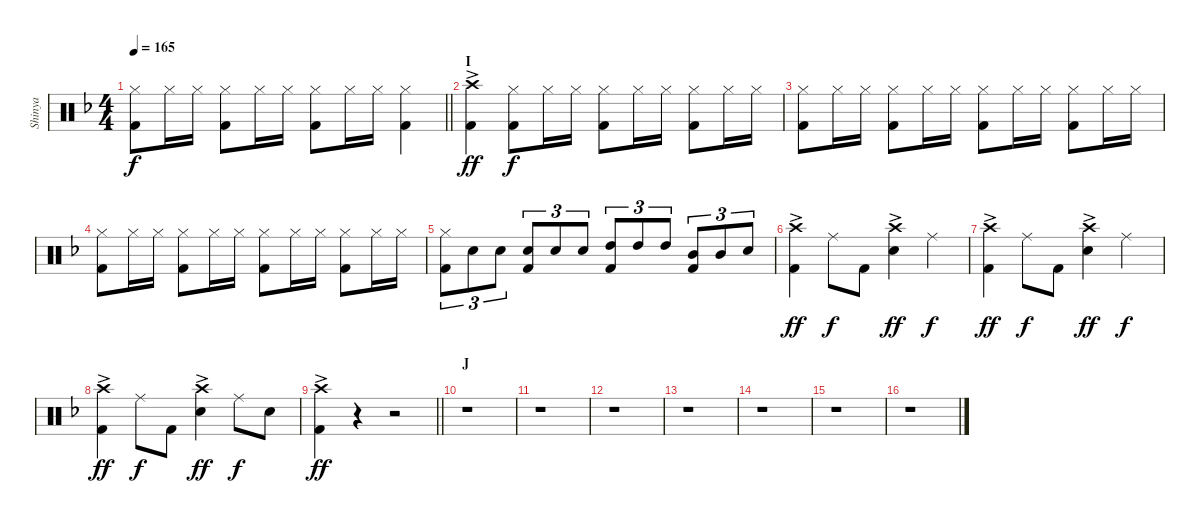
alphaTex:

\track ("Shinya" "Shinya") {instrument percussion}
\staff {score}
\articulation defaults
\ts (4 4)
\tempo 165
\clef neutral
\barLineRight lightlight
\ks dminor
("Hi-Hat (closed)" "Kick (hit) 2").8{dy f} "Hi-Hat (closed)".16 "Hi-Hat (closed)".16 ("Hi-Hat (closed)" "Kick (hit) 2").8 "Hi-Hat (closed)".16 "Hi-Hat (closed)".16 ("Hi-Hat (closed)" "Kick (hit) 2").8 "Hi-Hat (closed)".16 "Hi-Hat (closed)".16 ("Hi-Hat (closed)" "Kick (hit) 2").4 |
\section ("" "I")
("Crash high (hit)"{ac} "Kick (hit) 2").4{dy ff} ("Hi-Hat (closed)" "Kick (hit) 2").8{dy f} "Hi-Hat (closed)".16 "Hi-Hat (closed)".16 ("Hi-Hat (closed)" "Kick (hit) 2").8 "Hi-Hat (closed)".16 "Hi-Hat (closed)".16 ("Hi-Hat (closed)" "Kick (hit) 2").8 "Hi-Hat (closed)".16 "Hi-Hat (closed)".16 |
("Hi-Hat (closed)" "Kick (hit) 2").8 "Hi-Hat (closed)".16 "Hi-Hat (closed)".16 ("Hi-Hat (closed)" "Kick (hit) 2").8 "Hi-Hat (closed)".16 "Hi-Hat (closed)".16 ("Hi-Hat (closed)" "Kick (hit) 2").8 "Hi-Hat (closed)".16 "Hi-Hat (closed)".16 ("Hi-Hat (closed)" "Kick (hit) 2").8 "Hi-Hat (closed)".16 "Hi-Hat (closed)".16 |
("Hi-Hat (closed)" "Kick (hit) 2").8 "Hi-Hat (closed)".16 "Hi-Hat (closed)".16 ("Hi-Hat (closed)" "Kick (hit) 2").8 "Hi-Hat (closed)".16 "Hi-Hat (closed)".16 ("Hi-Hat (closed)" "Kick (hit) 2").8 "Hi-Hat (closed)".16 "Hi-Hat (closed)".16 ("Hi-Hat (closed)" "Kick (hit) 2").8 "Hi-Hat (closed)".16 "Hi-Hat (closed)".16 |
("Hi-Hat (closed)" "Kick (hit) 2").8{tu (3 2)} "Snare (hit) 2".8{tu (3 2)} "Snare (hit) 2".8{tu (3 2)} ("Snare (hit) 2" "Kick (hit) 2").8{tu (3 2)} "Snare (hit) 2".8{tu (3 2)} "Snare (hit) 2".8{tu (3 2)} ("High Tom (hit)" "Kick (hit) 2").8{tu (3 2)} "High Tom (hit)".8{tu (3 2)} "High Tom (hit)".8{tu (3 2)} ("Mid Tom (hit)" "Kick (hit) 2").8{tu (3 2)} "Mid Tom (hit)".8{tu (3 2)} "Snare (hit) 2".8{tu (3 2)} |
("Crash high (hit)"{ac} "Kick (hit) 2").4{dy ff} "Ride (middle)".8{dy f} "Kick (hit) 2".8 ("Crash high (hit)"{ac} "Snare (hit) 2").4{dy ff} "Ride (middle)".4{dy f} |
("Crash high (hit)"{ac} "Kick (hit) 2").4{dy ff} "Ride (middle)".8{dy f} "Kick (hit) 2".8 ("Crash high (hit)"{ac} "Snare (hit) 2").4{dy ff} "Ride (middle)".4{dy f} |
("Crash high (hit)"{ac} "Kick (hit) 2").4{dy ff} "Ride (middle)".8{dy f} "Kick (hit) 2".8 ("Crash high (hit)"{ac} "Snare (hit) 2").4{dy ff} "Ride (middle)".8{dy f} "Snare (hit) 2".8 |
\barLineRight lightlight
("Crash high (hit)"{ac} "Kick (hit) 2").4{dy ff} r.4 r.2 |
\section ("" "J")
r.1 |
r.1 |
r.1 |
r.1 |
r.1 |
r.1 |
r.1
